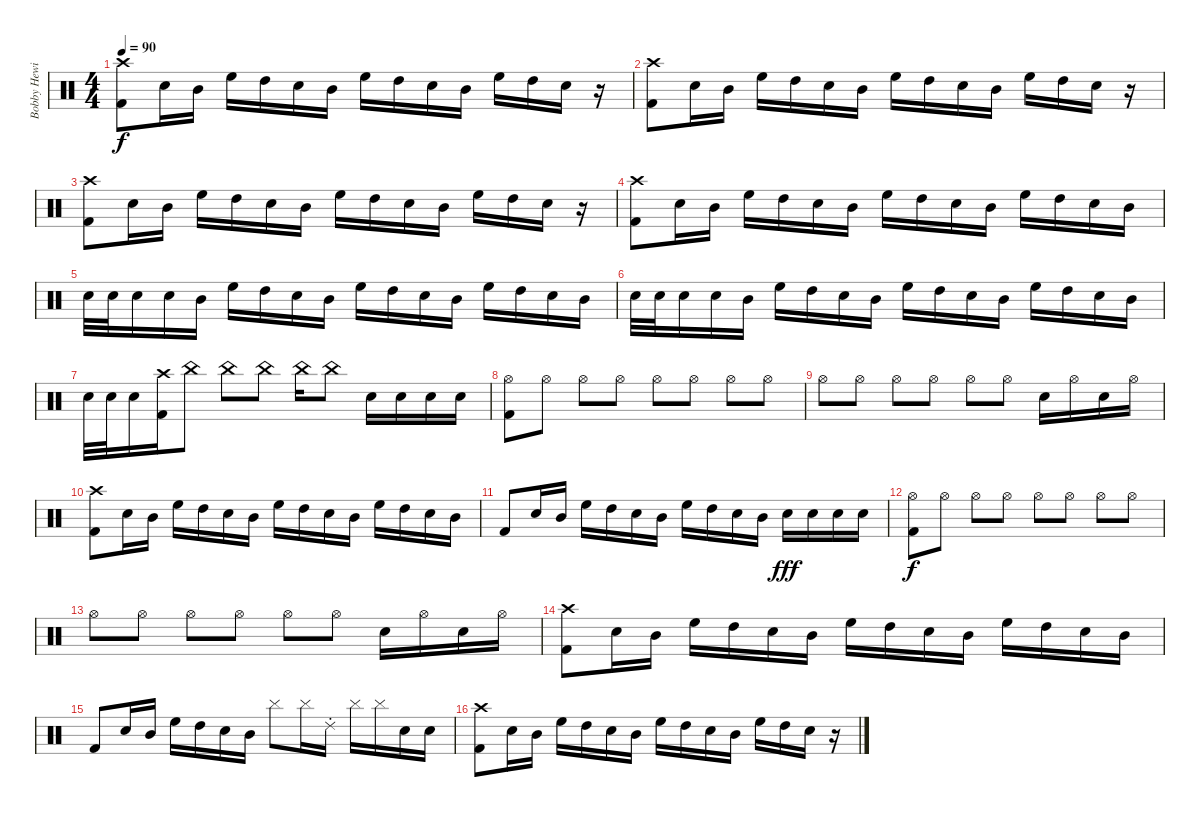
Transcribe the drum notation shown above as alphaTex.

\track ("Bobby Hewitt (Drums)" "Bobby Hewi") {instrument percussion}
\staff {score}
\articulation defaults
\ts (4 4)
\tempo 90
\clef neutral
\ks c
("Crash high (hit)" "Kick (hit) 2").8{dy f} "Electric Snare (hit)".16 "Mid Tom (hit)".16 "High Floor Tom (hit)".16 "High Tom (hit)".16 "Electric Snare (hit)".16 "Mid Tom (hit)".16 "High Floor Tom (hit)".16 "High Tom (hit)".16 "Electric Snare (hit)".16 "Mid Tom (hit)".16 "High Floor Tom (hit)".16 "High Tom (hit)".16 "Electric Snare (hit)".16 r.16 |
("Crash high (hit)" "Kick (hit) 2").8 "Electric Snare (hit)".16 "Mid Tom (hit)".16 "High Floor Tom (hit)".16 "High Tom (hit)".16 "Electric Snare (hit)".16 "Mid Tom (hit)".16 "High Floor Tom (hit)".16 "High Tom (hit)".16 "Electric Snare (hit)".16 "Mid Tom (hit)".16 "High Floor Tom (hit)".16 "High Tom (hit)".16 "Electric Snare (hit)".16 r.16 |
("Crash high (hit)" "Kick (hit) 2").8 "Electric Snare (hit)".16 "Mid Tom (hit)".16 "High Floor Tom (hit)".16 "High Tom (hit)".16 "Electric Snare (hit)".16 "Mid Tom (hit)".16 "High Floor Tom (hit)".16 "High Tom (hit)".16 "Electric Snare (hit)".16 "Mid Tom (hit)".16 "High Floor Tom (hit)".16 "High Tom (hit)".16 "Electric Snare (hit)".16 r.16 |
("Crash high (hit)" "Kick (hit) 2").8 "Electric Snare (hit)".16 "Mid Tom (hit)".16 "High Floor Tom (hit)".16 "High Tom (hit)".16 "Electric Snare (hit)".16 "Mid Tom (hit)".16 "High Floor Tom (hit)".16 "High Tom (hit)".16 "Electric Snare (hit)".16 "Mid Tom (hit)".16 "High Floor Tom (hit)".16 "High Tom (hit)".16 "Electric Snare (hit)".16 "Mid Tom (hit)".16 |
"Electric Snare (hit)".32 "Electric Snare (hit)".32 "Electric Snare (hit)".16 "Electric Snare (hit)".16 "Mid Tom (hit)".16 "High Floor Tom (hit)".16 "High Tom (hit)".16 "Electric Snare (hit)".16 "Mid Tom (hit)".16 "High Floor Tom (hit)".16 "High Tom (hit)".16 "Electric Snare (hit)".16 "Mid Tom (hit)".16 "High Floor Tom (hit)".16 "High Tom (hit)".16 "Electric Snare (hit)".16 "Mid Tom (hit)".16 |
"Electric Snare (hit)".32 "Electric Snare (hit)".32 "Electric Snare (hit)".16 "Electric Snare (hit)".16 "Mid Tom (hit)".16 "High Floor Tom (hit)".16 "High Tom (hit)".16 "Electric Snare (hit)".16 "Mid Tom (hit)".16 "High Floor Tom (hit)".16 "High Tom (hit)".16 "Electric Snare (hit)".16 "Mid Tom (hit)".16 "High Floor Tom (hit)".16 "High Tom (hit)".16 "Electric Snare (hit)".16 "Mid Tom (hit)".16 |
"Electric Snare (hit)".32 "Electric Snare (hit)".32 "Electric Snare (hit)".16 ("Crash high (hit)" "Kick (hit) 2").16 "China (hit)".8 "China (hit)".8 "China (hit)".8 "China (hit)".16 "China (hit)".8 "Electric Snare (hit)".16 "Electric Snare (hit)".16 "Electric Snare (hit)".16 "Electric Snare (hit)".16 |
("Hi-Hat (open)" "Kick (hit) 2").8 "Hi-Hat (open)".8 "Hi-Hat (open)".8 "Hi-Hat (open)".8 "Hi-Hat (open)".8 "Hi-Hat (open)".8 "Hi-Hat (open)".8 "Hi-Hat (open)".8 |
"Hi-Hat (open)".8 "Hi-Hat (open)".8 "Hi-Hat (open)".8 "Hi-Hat (open)".8 "Hi-Hat (open)".8 "Hi-Hat (open)".8 "Electric Snare (hit)".16 "Hi-Hat (open)".16 "Electric Snare (hit)".16 "Hi-Hat (open)".16 |
("Crash high (hit)" "Kick (hit) 2").8 "Electric Snare (hit)".16 "Mid Tom (hit)".16 "High Floor Tom (hit)".16 "High Tom (hit)".16 "Electric Snare (hit)".16 "Mid Tom (hit)".16 "High Floor Tom (hit)".16 "High Tom (hit)".16 "Electric Snare (hit)".16 "Mid Tom (hit)".16 "High Floor Tom (hit)".16 "High Tom (hit)".16 "Electric Snare (hit)".16 "Mid Tom (hit)".16 |
"Kick (hit) 2".8 "Electric Snare (hit)".16 "Mid Tom (hit)".16 "High Floor Tom (hit)".16 "High Tom (hit)".16 "Electric Snare (hit)".16 "Mid Tom (hit)".16 "High Floor Tom (hit)".16 "High Tom (hit)".16 "Electric Snare (hit)".16 "Mid Tom (hit)".16 "Electric Snare (hit)".16{dy fff} "Electric Snare (hit)".16 "Electric Snare (hit)".16 "Electric Snare (hit)".16 |
("Hi-Hat (open)" "Kick (hit) 2").8{dy f} "Hi-Hat (open)".8 "Hi-Hat (open)".8 "Hi-Hat (open)".8 "Hi-Hat (open)".8 "Hi-Hat (open)".8 "Hi-Hat (open)".8 "Hi-Hat (open)".8 |
"Hi-Hat (open)".8 "Hi-Hat (open)".8 "Hi-Hat (open)".8 "Hi-Hat (open)".8 "Hi-Hat (open)".8 "Hi-Hat (open)".8 "Electric Snare (hit)".16 "Hi-Hat (open)".16 "Electric Snare (hit)".16 "Hi-Hat (open)".16 |
("Crash high (hit)" "Kick (hit) 2").8 "Electric Snare (hit)".16 "Mid Tom (hit)".16 "High Floor Tom (hit)".16 "High Tom (hit)".16 "Electric Snare (hit)".16 "Mid Tom (hit)".16 "High Floor Tom (hit)".16 "High Tom (hit)".16 "Electric Snare (hit)".16 "Mid Tom (hit)".16 "High Floor Tom (hit)".16 "High Tom (hit)".16 "Electric Snare (hit)".16 "Mid Tom (hit)".16 |
"Kick (hit) 2".8 "Electric Snare (hit)".16 "Mid Tom (hit)".16 "High Floor Tom (hit)".16 "High Tom (hit)".16 "Electric Snare (hit)".16 "Mid Tom (hit)".16 "Cymbal (hit)".8 "Cymbal (hit)".16 "Ride (choke) 2".16 "Cymbal (hit)".16 "Cymbal (hit)".16 "Electric Snare (hit)".16 "Electric Snare (hit)".16 |
("Crash high (hit)" "Kick (hit) 2").8 "Electric Snare (hit)".16 "Mid Tom (hit)".16 "High Floor Tom (hit)".16 "High Tom (hit)".16 "Electric Snare (hit)".16 "Mid Tom (hit)".16 "High Floor Tom (hit)".16 "High Tom (hit)".16 "Electric Snare (hit)".16 "Mid Tom (hit)".16 "High Floor Tom (hit)".16 "High Tom (hit)".16 "Electric Snare (hit)".16 r.16
